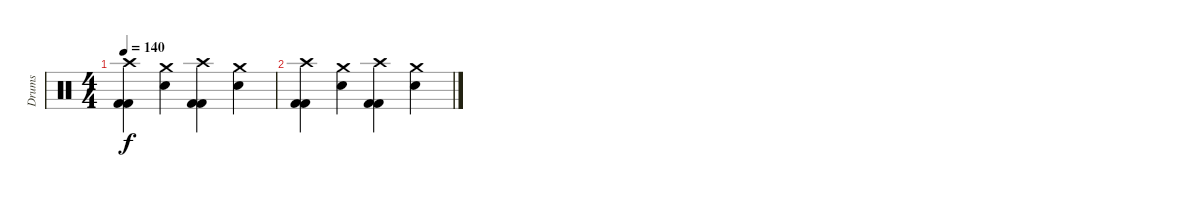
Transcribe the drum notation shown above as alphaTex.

\track ("Drums" "Drums") {instrument percussion}
\staff {score}
\articulation defaults
\ts (4 4)
\tempo 140
\clef neutral
\ks c
("Crash high (hit)" "Kick (hit) 2" "Kick (hit) 2").4{dy f} ("Crash medium (hit)" "Electric Snare (hit)").4 ("Crash high (hit)" "Kick (hit) 2" "Kick (hit) 2").4 ("Crash medium (hit)" "Electric Snare (hit)").4 |
("Crash high (hit)" "Kick (hit) 2" "Kick (hit) 2").4 ("Crash medium (hit)" "Electric Snare (hit)").4 ("Crash high (hit)" "Kick (hit) 2" "Kick (hit) 2").4 ("Crash medium (hit)" "Electric Snare (hit)").4
